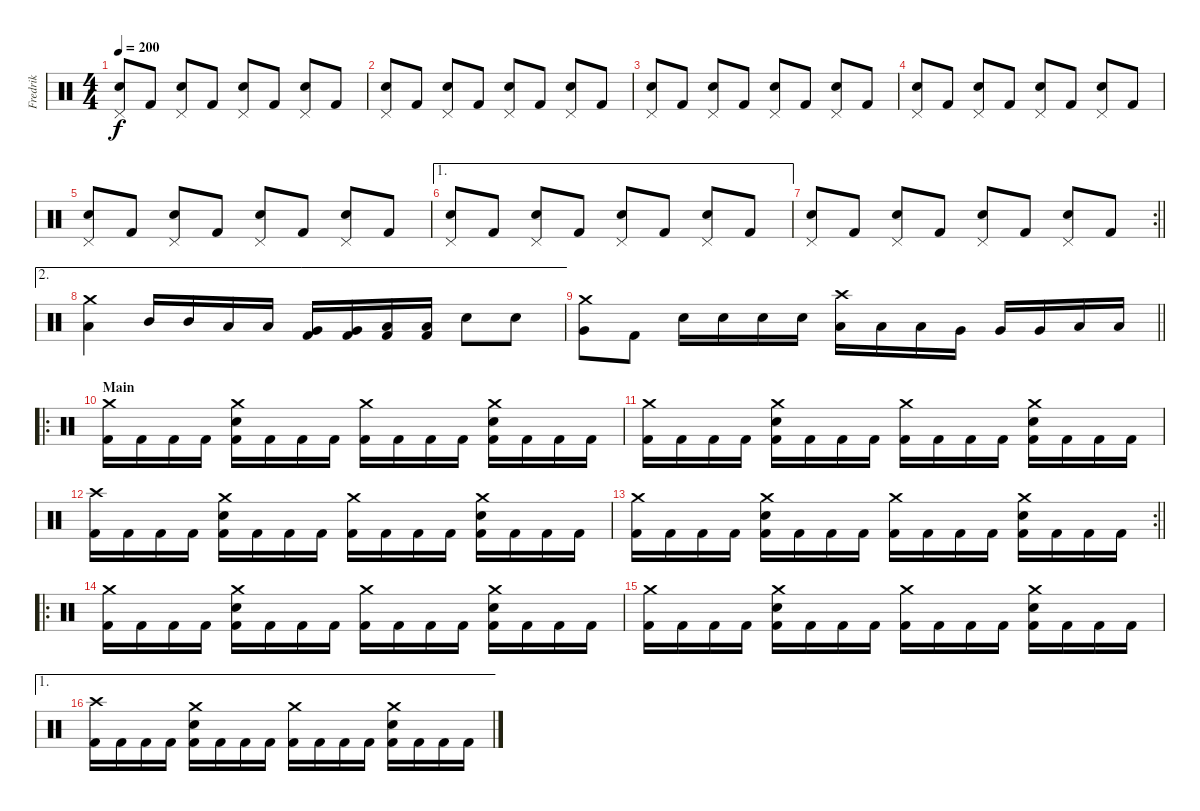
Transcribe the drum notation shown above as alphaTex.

\track ("Fredrik" "Fredrik") {instrument percussion}
\staff {score}
\articulation defaults
\ts (4 4)
\tempo 200
\clef neutral
\ks c
("Snare (hit) 2" "Pedal Hi-Hat (hit)").8{dy f} "Kick (hit) 2".8 ("Snare (hit) 2" "Pedal Hi-Hat (hit)").8 "Kick (hit) 2".8 ("Snare (hit) 2" "Pedal Hi-Hat (hit)").8 "Kick (hit) 2".8 ("Snare (hit) 2" "Pedal Hi-Hat (hit)").8 "Kick (hit) 2".8 |
("Snare (hit) 2" "Pedal Hi-Hat (hit)").8 "Kick (hit) 2".8 ("Snare (hit) 2" "Pedal Hi-Hat (hit)").8 "Kick (hit) 2".8 ("Snare (hit) 2" "Pedal Hi-Hat (hit)").8 "Kick (hit) 2".8 ("Snare (hit) 2" "Pedal Hi-Hat (hit)").8 "Kick (hit) 2".8 |
("Snare (hit) 2" "Pedal Hi-Hat (hit)").8 "Kick (hit) 2".8 ("Snare (hit) 2" "Pedal Hi-Hat (hit)").8 "Kick (hit) 2".8 ("Snare (hit) 2" "Pedal Hi-Hat (hit)").8 "Kick (hit) 2".8 ("Snare (hit) 2" "Pedal Hi-Hat (hit)").8 "Kick (hit) 2".8 |
("Snare (hit) 2" "Pedal Hi-Hat (hit)").8 "Kick (hit) 2".8 ("Snare (hit) 2" "Pedal Hi-Hat (hit)").8 "Kick (hit) 2".8 ("Snare (hit) 2" "Pedal Hi-Hat (hit)").8 "Kick (hit) 2".8 ("Snare (hit) 2" "Pedal Hi-Hat (hit)").8 "Kick (hit) 2".8 |
("Snare (hit) 2" "Pedal Hi-Hat (hit)").8 "Kick (hit) 2".8 ("Snare (hit) 2" "Pedal Hi-Hat (hit)").8 "Kick (hit) 2".8 ("Snare (hit) 2" "Pedal Hi-Hat (hit)").8 "Kick (hit) 2".8 ("Snare (hit) 2" "Pedal Hi-Hat (hit)").8 "Kick (hit) 2".8 |
\ae 1
("Snare (hit) 2" "Pedal Hi-Hat (hit)").8 "Kick (hit) 2".8 ("Snare (hit) 2" "Pedal Hi-Hat (hit)").8 "Kick (hit) 2".8 ("Snare (hit) 2" "Pedal Hi-Hat (hit)").8 "Kick (hit) 2".8 ("Snare (hit) 2" "Pedal Hi-Hat (hit)").8 "Kick (hit) 2".8 |
\rc 2
\barLineRight lightlight
("Snare (hit) 2" "Pedal Hi-Hat (hit)").8 "Kick (hit) 2".8 ("Snare (hit) 2" "Pedal Hi-Hat (hit)").8 "Kick (hit) 2".8 ("Snare (hit) 2" "Pedal Hi-Hat (hit)").8 "Kick (hit) 2".8 ("Snare (hit) 2" "Pedal Hi-Hat (hit)").8 "Kick (hit) 2".8 |
\ae 2
("Low Tom (hit)" "Crash medium (hit)").4 "Mid Tom (hit)".16 "Mid Tom (hit)".16 "Low Tom (hit)".16 "Low Tom (hit)".16 ("Kick (hit) 2" "Very Low Tom (hit)").16 ("Kick (hit) 2" "Very Low Tom (hit)").16 ("Kick (hit) 2" "Low Floor Tom (hit)").16 ("Kick (hit) 2" "Low Floor Tom (hit)").16 "Snare (hit) 2".8 "Snare (hit) 2".8 |
\barLineRight lightlight
("Very Low Tom (hit)" "Crash medium (hit)").8 "Kick (hit) 2".8 "Snare (hit) 2".16 "Snare (hit) 2".16 "Snare (hit) 2".16 "Snare (hit) 2".16 ("Low Tom (hit)" "Crash high (hit)").16 "Low Tom (hit)".16 "Low Tom (hit)".16 "Very Low Tom (hit)".16 "Very Low Tom (hit)".16 "Very Low Tom (hit)".16 "Low Floor Tom (hit)".16 "Low Floor Tom (hit)".16 |
\ro
\section ("" "Main")
("Kick (hit) 2" "Crash medium (hit)").16 "Kick (hit) 2".16 "Kick (hit) 2".16 "Kick (hit) 2".16 ("Kick (hit) 2" "Snare (hit) 2" "Crash medium (hit)").16 "Kick (hit) 2".16 "Kick (hit) 2".16 "Kick (hit) 2".16 ("Kick (hit) 2" "Crash medium (hit)").16 "Kick (hit) 2".16 "Kick (hit) 2".16 "Kick (hit) 2".16 ("Kick (hit) 2" "Snare (hit) 2" "Crash medium (hit)").16 "Kick (hit) 2".16 "Kick (hit) 2".16 "Kick (hit) 2".16 |
("Kick (hit) 2" "Crash medium (hit)").16 "Kick (hit) 2".16 "Kick (hit) 2".16 "Kick (hit) 2".16 ("Kick (hit) 2" "Snare (hit) 2" "Crash medium (hit)").16 "Kick (hit) 2".16 "Kick (hit) 2".16 "Kick (hit) 2".16 ("Kick (hit) 2" "Crash medium (hit)").16 "Kick (hit) 2".16 "Kick (hit) 2".16 "Kick (hit) 2".16 ("Kick (hit) 2" "Snare (hit) 2" "Crash medium (hit)").16 "Kick (hit) 2".16 "Kick (hit) 2".16 "Kick (hit) 2".16 |
("Kick (hit) 2" "Crash high (hit)").16 "Kick (hit) 2".16 "Kick (hit) 2".16 "Kick (hit) 2".16 ("Kick (hit) 2" "Snare (hit) 2" "Crash medium (hit)").16 "Kick (hit) 2".16 "Kick (hit) 2".16 "Kick (hit) 2".16 ("Kick (hit) 2" "Crash medium (hit)").16 "Kick (hit) 2".16 "Kick (hit) 2".16 "Kick (hit) 2".16 ("Kick (hit) 2" "Snare (hit) 2" "Crash medium (hit)").16 "Kick (hit) 2".16 "Kick (hit) 2".16 "Kick (hit) 2".16 |
\rc 2
\barLineRight lightlight
("Kick (hit) 2" "Crash medium (hit)").16 "Kick (hit) 2".16 "Kick (hit) 2".16 "Kick (hit) 2".16 ("Kick (hit) 2" "Snare (hit) 2" "Crash medium (hit)").16 "Kick (hit) 2".16 "Kick (hit) 2".16 "Kick (hit) 2".16 ("Kick (hit) 2" "Crash medium (hit)").16 "Kick (hit) 2".16 "Kick (hit) 2".16 "Kick (hit) 2".16 ("Kick (hit) 2" "Snare (hit) 2" "Crash medium (hit)").16 "Kick (hit) 2".16 "Kick (hit) 2".16 "Kick (hit) 2".16 |
\ro
("Kick (hit) 2" "Crash medium (hit)").16 "Kick (hit) 2".16 "Kick (hit) 2".16 "Kick (hit) 2".16 ("Kick (hit) 2" "Snare (hit) 2" "Crash medium (hit)").16 "Kick (hit) 2".16 "Kick (hit) 2".16 "Kick (hit) 2".16 ("Kick (hit) 2" "Crash medium (hit)").16 "Kick (hit) 2".16 "Kick (hit) 2".16 "Kick (hit) 2".16 ("Kick (hit) 2" "Snare (hit) 2" "Crash medium (hit)").16 "Kick (hit) 2".16 "Kick (hit) 2".16 "Kick (hit) 2".16 |
("Kick (hit) 2" "Crash medium (hit)").16 "Kick (hit) 2".16 "Kick (hit) 2".16 "Kick (hit) 2".16 ("Kick (hit) 2" "Snare (hit) 2" "Crash medium (hit)").16 "Kick (hit) 2".16 "Kick (hit) 2".16 "Kick (hit) 2".16 ("Kick (hit) 2" "Crash medium (hit)").16 "Kick (hit) 2".16 "Kick (hit) 2".16 "Kick (hit) 2".16 ("Kick (hit) 2" "Snare (hit) 2" "Crash medium (hit)").16 "Kick (hit) 2".16 "Kick (hit) 2".16 "Kick (hit) 2".16 |
\ae 1
("Kick (hit) 2" "Crash high (hit)").16 "Kick (hit) 2".16 "Kick (hit) 2".16 "Kick (hit) 2".16 ("Kick (hit) 2" "Snare (hit) 2" "Crash medium (hit)").16 "Kick (hit) 2".16 "Kick (hit) 2".16 "Kick (hit) 2".16 ("Kick (hit) 2" "Crash medium (hit)").16 "Kick (hit) 2".16 "Kick (hit) 2".16 "Kick (hit) 2".16 ("Kick (hit) 2" "Snare (hit) 2" "Crash medium (hit)").16 "Kick (hit) 2".16 "Kick (hit) 2".16 "Kick (hit) 2".16
